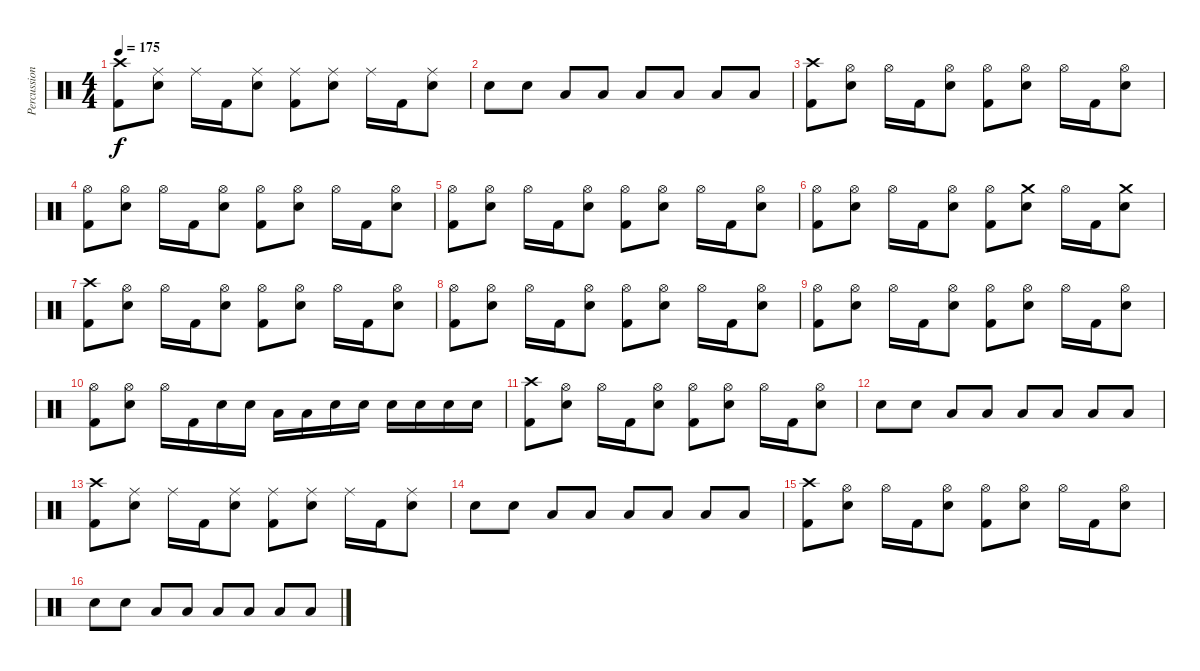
\track ("Percussion" "Percussion") {instrument percussion}
\staff {score}
\articulation defaults
\ts (4 4)
\tempo 175
\clef neutral
\ks c
("Crash high (hit)" "Kick (hit) 2").8{dy f} ("Ride (middle)" "Snare (hit) 2").8 "Ride (middle)".16 "Kick (hit) 2".16 ("Ride (middle)" "Snare (hit) 2").8 ("Ride (middle)" "Kick (hit) 2").8 ("Ride (middle)" "Snare (hit) 2").8 "Ride (middle)".16 "Kick (hit) 2".16 ("Ride (middle)" "Snare (hit) 2").8 |
"Snare (hit) 2".8 "Snare (hit) 2".8 "Low Tom (hit)".8 "Low Tom (hit)".8 "Low Floor Tom (hit)".8 "Low Floor Tom (hit)".8 "Low Floor Tom (hit)".8 "Low Floor Tom (hit)".8 |
("Crash high (hit)" "Kick (hit) 2").8 ("Hi-Hat (open)" "Snare (hit) 2").8 "Hi-Hat (open)".16 "Kick (hit) 2".16 ("Hi-Hat (open)" "Snare (hit) 2").8 ("Hi-Hat (open)" "Kick (hit) 2").8 ("Hi-Hat (open)" "Snare (hit) 2").8 "Hi-Hat (open)".16 "Kick (hit) 2".16 ("Hi-Hat (open)" "Snare (hit) 2").8 |
("Hi-Hat (open)" "Kick (hit) 2").8 ("Hi-Hat (open)" "Snare (hit) 2").8 "Hi-Hat (open)".16 "Kick (hit) 2".16 ("Hi-Hat (open)" "Snare (hit) 2").8 ("Hi-Hat (open)" "Kick (hit) 2").8 ("Hi-Hat (open)" "Snare (hit) 2").8 "Hi-Hat (open)".16 "Kick (hit) 2".16 ("Hi-Hat (open)" "Snare (hit) 2").8 |
("Hi-Hat (open)" "Kick (hit) 2").8 ("Hi-Hat (open)" "Snare (hit) 2").8 "Hi-Hat (open)".16 "Kick (hit) 2".16 ("Hi-Hat (open)" "Snare (hit) 2").8 ("Hi-Hat (open)" "Kick (hit) 2").8 ("Hi-Hat (open)" "Snare (hit) 2").8 "Hi-Hat (open)".16 "Kick (hit) 2".16 ("Hi-Hat (open)" "Snare (hit) 2").8 |
("Hi-Hat (open)" "Kick (hit) 2").8 ("Hi-Hat (open)" "Snare (hit) 2").8 "Hi-Hat (open)".16 "Kick (hit) 2".16 ("Hi-Hat (open)" "Snare (hit) 2").8 ("Hi-Hat (open)" "Kick (hit) 2").8 ("Crash medium (hit)" "Snare (hit) 2").8 "Hi-Hat (open)".16 "Kick (hit) 2".16 ("Crash medium (hit)" "Snare (hit) 2").8 |
("Crash high (hit)" "Kick (hit) 2").8 ("Hi-Hat (open)" "Snare (hit) 2").8 "Hi-Hat (open)".16 "Kick (hit) 2".16 ("Hi-Hat (open)" "Snare (hit) 2").8 ("Hi-Hat (open)" "Kick (hit) 2").8 ("Hi-Hat (open)" "Snare (hit) 2").8 "Hi-Hat (open)".16 "Kick (hit) 2".16 ("Hi-Hat (open)" "Snare (hit) 2").8 |
("Hi-Hat (open)" "Kick (hit) 2").8 ("Hi-Hat (open)" "Snare (hit) 2").8 "Hi-Hat (open)".16 "Kick (hit) 2".16 ("Hi-Hat (open)" "Snare (hit) 2").8 ("Hi-Hat (open)" "Kick (hit) 2").8 ("Hi-Hat (open)" "Snare (hit) 2").8 "Hi-Hat (open)".16 "Kick (hit) 2".16 ("Hi-Hat (open)" "Snare (hit) 2").8 |
("Hi-Hat (open)" "Kick (hit) 2").8 ("Hi-Hat (open)" "Snare (hit) 2").8 "Hi-Hat (open)".16 "Kick (hit) 2".16 ("Hi-Hat (open)" "Snare (hit) 2").8 ("Hi-Hat (open)" "Kick (hit) 2").8 ("Hi-Hat (open)" "Snare (hit) 2").8 "Hi-Hat (open)".16 "Kick (hit) 2".16 ("Hi-Hat (open)" "Snare (hit) 2").8 |
("Hi-Hat (open)" "Kick (hit) 2").8 ("Hi-Hat (open)" "Snare (hit) 2").8 "Hi-Hat (open)".16 "Kick (hit) 2".16 "Snare (hit) 2".16 "Snare (hit) 2".16 "Low Floor Tom (hit)".16 "Low Floor Tom (hit)".16 "Snare (hit) 2".16 "Snare (hit) 2".16 "Snare (hit) 2".16 "Snare (hit) 2".16 "Snare (hit) 2".16 "Snare (hit) 2".16 |
("Crash high (hit)" "Kick (hit) 2").8 ("Hi-Hat (open)" "Snare (hit) 2").8 "Hi-Hat (open)".16 "Kick (hit) 2".16 ("Hi-Hat (open)" "Snare (hit) 2").8 ("Hi-Hat (open)" "Kick (hit) 2").8 ("Hi-Hat (open)" "Snare (hit) 2").8 "Hi-Hat (open)".16 "Kick (hit) 2".16 ("Hi-Hat (open)" "Snare (hit) 2").8 |
"Snare (hit) 2".8 "Snare (hit) 2".8 "Low Tom (hit)".8 "Low Tom (hit)".8 "Low Floor Tom (hit)".8 "Low Floor Tom (hit)".8 "Low Floor Tom (hit)".8 "Low Floor Tom (hit)".8 |
("Crash high (hit)" "Kick (hit) 2").8 ("Ride (middle)" "Snare (hit) 2").8 "Ride (middle)".16 "Kick (hit) 2".16 ("Ride (middle)" "Snare (hit) 2").8 ("Ride (middle)" "Kick (hit) 2").8 ("Ride (middle)" "Snare (hit) 2").8 "Ride (middle)".16 "Kick (hit) 2".16 ("Ride (middle)" "Snare (hit) 2").8 |
"Snare (hit) 2".8 "Snare (hit) 2".8 "Low Tom (hit)".8 "Low Tom (hit)".8 "Low Floor Tom (hit)".8 "Low Floor Tom (hit)".8 "Low Floor Tom (hit)".8 "Low Floor Tom (hit)".8 |
("Crash high (hit)" "Kick (hit) 2").8 ("Hi-Hat (open)" "Snare (hit) 2").8 "Hi-Hat (open)".16 "Kick (hit) 2".16 ("Hi-Hat (open)" "Snare (hit) 2").8 ("Hi-Hat (open)" "Kick (hit) 2").8 ("Hi-Hat (open)" "Snare (hit) 2").8 "Hi-Hat (open)".16 "Kick (hit) 2".16 ("Hi-Hat (open)" "Snare (hit) 2").8 |
"Snare (hit) 2".8 "Snare (hit) 2".8 "Low Tom (hit)".8 "Low Tom (hit)".8 "Low Floor Tom (hit)".8 "Low Floor Tom (hit)".8 "Low Floor Tom (hit)".8 "Low Floor Tom (hit)".8
